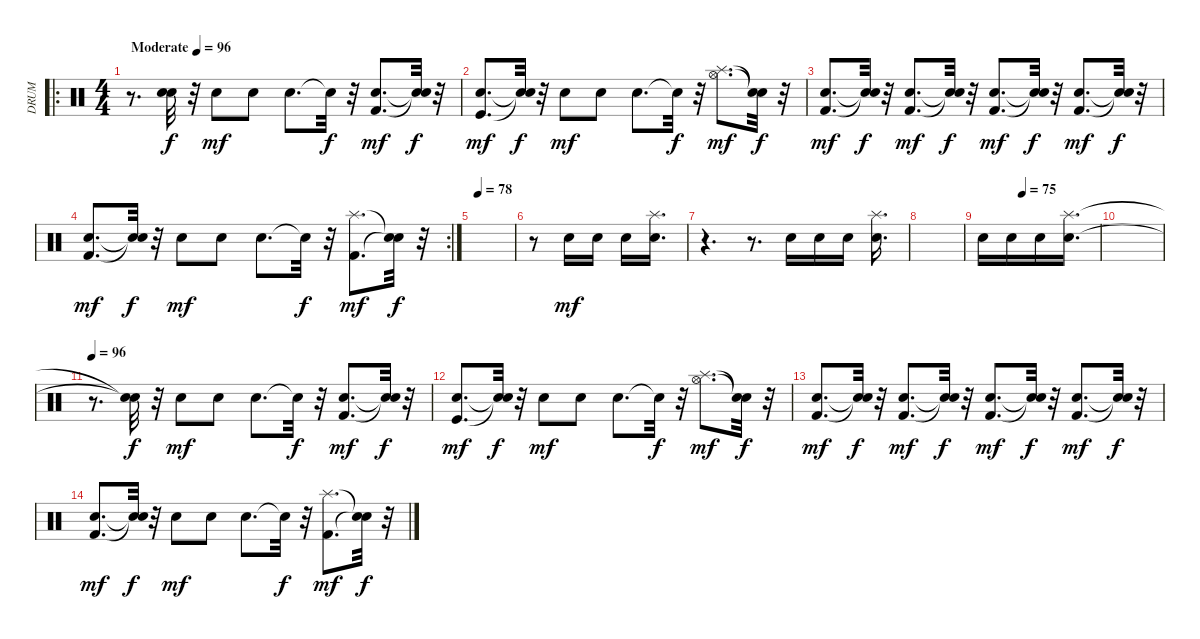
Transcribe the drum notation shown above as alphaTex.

\track ("DRUM" "DRUM") {instrument percussion}
\staff {score}
\articulation defaults
\ro
\ts (4 4)
\tempo (96 "Moderate")
\clef neutral
\ks c
r.8{d dy f} ("Snare (hit)" "Snare (hit)").32 r.32 "Snare (hit) 2".8{dy mf} "Snare (hit) 2".8 "Snare (hit) 2".8{d} "Snare (hit)"{t}.32{dy f} r.32 ("Snare (hit) 2" "Kick (hit) 2").8{d dy mf} ("Snare (hit)"{t} "Snare (hit)"{t}).32{dy f} r.32 |
("Snare (hit) 2" "Kick (hit)").8{d dy mf} ("Snare (hit)"{t} "Snare (hit)"{t}).32{dy f} r.32 "Snare (hit) 2".8{dy mf} "Snare (hit) 2".8 "Snare (hit) 2".8{d} "Snare (hit)"{t}.32{dy f} r.32 ("Splash (hit)" "Hi-Hat (open)").8{d dy mf} ("Snare (hit)"{t} "Snare (hit)"{t}).32{dy f} r.32 |
("Snare (hit) 2" "Kick (hit) 2").8{d dy mf} ("Snare (hit)"{t} "Snare (hit)"{t}).32{dy f} r.32 ("Kick (hit) 2" "Snare (hit) 2").8{d dy mf} ("Snare (hit)"{t} "Snare (hit)"{t}).32{dy f} r.32 ("Kick (hit) 2" "Snare (hit) 2").8{d dy mf} ("Snare (hit)"{t} "Snare (hit)"{t}).32{dy f} r.32 ("Kick (hit) 2" "Snare (hit) 2").8{d dy mf} ("Snare (hit)"{t} "Snare (hit)"{t}).32{dy f} r.32 |
\rc 2
("Snare (hit) 2" "Kick (hit) 2").8{d dy mf} ("Snare (hit)"{t} "Snare (hit)"{t}).32{dy f} r.32 "Snare (hit) 2".8{dy mf} "Snare (hit) 2".8 "Snare (hit) 2".8{d} "Snare (hit)"{t}.32{dy f} r.32 ("Splash (hit)" "Kick (hit) 2").8{d dy mf} ("Snare (hit)"{t} "Snare (hit)"{t}).32{dy f} r.32 |
\tempo (78 0.125)
|
r.8 "Snare (hit) 2".16{dy mf} "Snare (hit) 2".16 "Snare (hit) 2".16 ("Snare (hit) 2" "Splash (hit)").16{d} |
r.4{d} r.8{d} "Snare (hit) 2".16 "Snare (hit) 2".16 "Snare (hit) 2".16 ("Snare (hit) 2" "Splash (hit)").16{d} |
|
\tempo (75 0.34375)
"Snare (hit) 2".16 "Snare (hit) 2".16 "Snare (hit) 2".16 ("Snare (hit) 2" "Splash (hit)").16{d} |
|
\tempo 96
r.8{d} ("Snare (hit)"{t} "Snare (hit)"{t}).32{dy f} r.32 "Snare (hit) 2".8{dy mf} "Snare (hit) 2".8 "Snare (hit) 2".8{d} "Snare (hit)"{t}.32{dy f} r.32 ("Snare (hit) 2" "Kick (hit) 2").8{d dy mf} ("Snare (hit)"{t} "Snare (hit)"{t}).32{dy f} r.32 |
("Snare (hit) 2" "Kick (hit)").8{d dy mf} ("Snare (hit)"{t} "Snare (hit)"{t}).32{dy f} r.32 "Snare (hit) 2".8{dy mf} "Snare (hit) 2".8 "Snare (hit) 2".8{d} "Snare (hit)"{t}.32{dy f} r.32 ("Splash (hit)" "Hi-Hat (open)").8{d dy mf} ("Snare (hit)"{t} "Snare (hit)"{t}).32{dy f} r.32 |
("Snare (hit) 2" "Kick (hit) 2").8{d dy mf} ("Snare (hit)"{t} "Snare (hit)"{t}).32{dy f} r.32 ("Kick (hit) 2" "Snare (hit) 2").8{d dy mf} ("Snare (hit)"{t} "Snare (hit)"{t}).32{dy f} r.32 ("Kick (hit) 2" "Snare (hit) 2").8{d dy mf} ("Snare (hit)"{t} "Snare (hit)"{t}).32{dy f} r.32 ("Kick (hit) 2" "Snare (hit) 2").8{d dy mf} ("Snare (hit)"{t} "Snare (hit)"{t}).32{dy f} r.32 |
("Snare (hit) 2" "Kick (hit) 2").8{d dy mf} ("Snare (hit)"{t} "Snare (hit)"{t}).32{dy f} r.32 "Snare (hit) 2".8{dy mf} "Snare (hit) 2".8 "Snare (hit) 2".8{d} "Snare (hit)"{t}.32{dy f} r.32 ("Splash (hit)" "Kick (hit) 2").8{d dy mf} ("Snare (hit)"{t} "Snare (hit)"{t}).32{dy f} r.32
